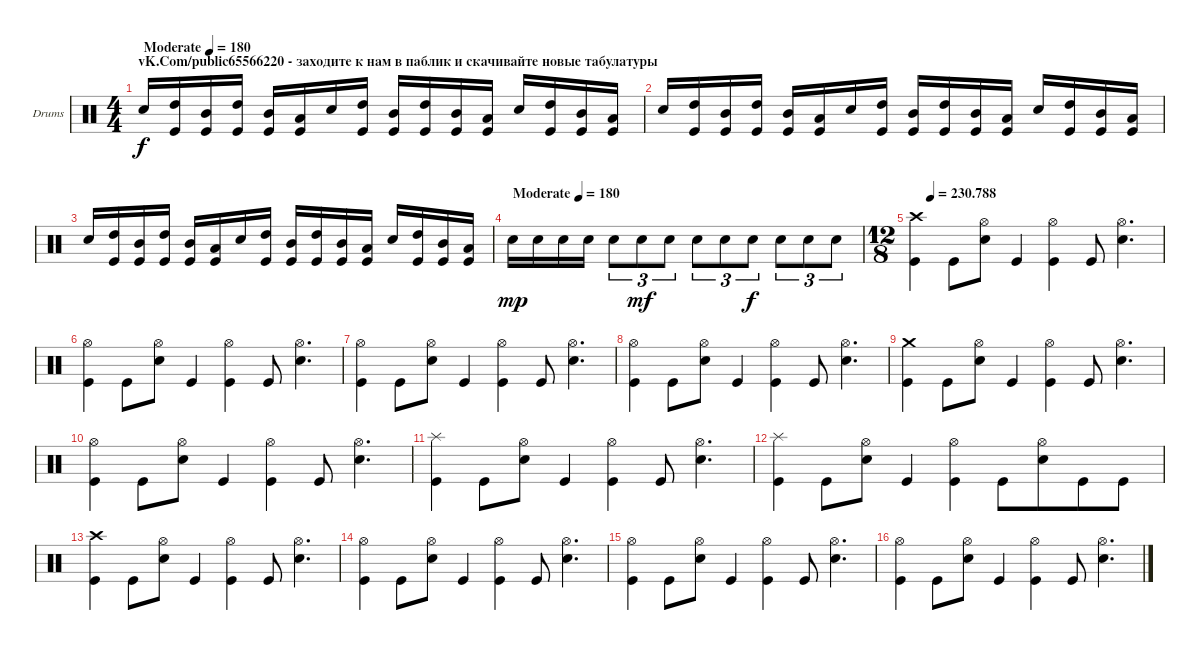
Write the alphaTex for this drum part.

\bracketExtendMode groupsimilarinstruments
\firstSystemTrackNameOrientation horizontal
\otherSystemsTrackNameOrientation horizontal
\track ("Ударные" "Drums") {instrument percussion}
\staff {score}
\articulation defaults
\ts (4 4)
\beaming (8 2 2 2 2)
\section ("" "vK.Com/public65566220 - заходите к нам в паблик и скачивайте новые табулатуры")
\tempo (180 "Moderate")
\clef neutral
\ks c "Snare (hit) 2".16{dy f}
("Kick (hit)" "High Tom (hit)").16 ("Kick (hit)" "Mid Tom (hit)").16 ("Kick (hit)" "High Tom (hit)").16 ("Mid Tom (hit)" "Kick (hit)").16 ("Low Tom (hit)" "Kick (hit)").16 "Snare (hit) 2".16 ("High Tom (hit)" "Kick (hit)").16 ("Mid Tom (hit)" "Kick (hit)").16 ("High Tom (hit)" "Kick (hit)").16 ("Mid Tom (hit)" "Kick (hit)").16 ("Low Tom (hit)" "Kick (hit)").16 "Snare (hit) 2".16 ("High Tom (hit)" "Kick (hit)").16 ("Mid Tom (hit)" "Kick (hit)").16 ("Low Tom (hit)" "Kick (hit)").16 |
"Snare (hit) 2".16 ("Kick (hit)" "High Tom (hit)").16 ("Kick (hit)" "Mid Tom (hit)").16 ("Kick (hit)" "High Tom (hit)").16 ("Mid Tom (hit)" "Kick (hit)").16 ("Low Tom (hit)" "Kick (hit)").16 "Snare (hit) 2".16 ("High Tom (hit)" "Kick (hit)").16 ("Mid Tom (hit)" "Kick (hit)").16 ("High Tom (hit)" "Kick (hit)").16 ("Mid Tom (hit)" "Kick (hit)").16 ("Low Tom (hit)" "Kick (hit)").16 "Snare (hit) 2".16 ("High Tom (hit)" "Kick (hit)").16 ("Mid Tom (hit)" "Kick (hit)").16 ("Low Tom (hit)" "Kick (hit)").16 |
"Snare (hit) 2".16 ("Kick (hit)" "High Tom (hit)").16 ("Kick (hit)" "Mid Tom (hit)").16 ("Kick (hit)" "High Tom (hit)").16 ("Mid Tom (hit)" "Kick (hit)").16 ("Low Tom (hit)" "Kick (hit)").16 "Snare (hit) 2".16 ("High Tom (hit)" "Kick (hit)").16 ("Mid Tom (hit)" "Kick (hit)").16 ("High Tom (hit)" "Kick (hit)").16 ("Mid Tom (hit)" "Kick (hit)").16 ("Low Tom (hit)" "Kick (hit)").16 "Snare (hit) 2".16 ("High Tom (hit)" "Kick (hit)").16 ("Mid Tom (hit)" "Kick (hit)").16 ("Low Tom (hit)" "Kick (hit)").16 |
\tempo (180 "Moderate")
"Snare (hit) 2".16{dy mp} "Snare (hit) 2".16 "Snare (hit) 2".16 "Snare (hit) 2".16 "Snare (hit) 2".8{tu (3 2)} "Snare (hit) 2".8{tu (3 2) dy mf} "Snare (hit) 2".8{tu (3 2)} "Snare (hit) 2".8{tu (3 2)} "Snare (hit) 2".8{tu (3 2)} "Snare (hit) 2".8{tu (3 2) dy f} "Snare (hit) 2".8{tu (3 2)} "Snare (hit) 2".8{tu (3 2)} "Snare (hit) 2".8{tu (3 2)} |
\ts (12 8)
\beaming (8 2 2 2 6)
\tempo (230.788 0.0625)
("Kick (hit)" "Crash high (hit)").4 "Kick (hit)".8 ("Snare (hit) 2" "Hi-Hat (open)").8 "Kick (hit)".4 ("Kick (hit)" "Hi-Hat (open)").4 "Kick (hit)".8 ("Snare (hit) 2" "Hi-Hat (open)").4{d} |
("Hi-Hat (open)" "Kick (hit)").4 "Kick (hit)".8 ("Hi-Hat (open)" "Snare (hit) 2").8 "Kick (hit)".4 ("Hi-Hat (open)" "Kick (hit)").4 "Kick (hit)".8 ("Hi-Hat (open)" "Snare (hit) 2").4{d} |
("Hi-Hat (open)" "Kick (hit)").4 "Kick (hit)".8 ("Hi-Hat (open)" "Snare (hit) 2").8 "Kick (hit)".4 ("Hi-Hat (open)" "Kick (hit)").4 "Kick (hit)".8 ("Hi-Hat (open)" "Snare (hit) 2").4{d} |
("Hi-Hat (open)" "Kick (hit)").4 "Kick (hit)".8 ("Hi-Hat (open)" "Snare (hit) 2").8 "Kick (hit)".4 ("Hi-Hat (open)" "Kick (hit)").4 "Kick (hit)".8 ("Hi-Hat (open)" "Snare (hit) 2").4{d} |
("Kick (hit)" "Crash medium (hit)").4 "Kick (hit)".8 ("Snare (hit) 2" "Hi-Hat (open)").8 "Kick (hit)".4 ("Kick (hit)" "Hi-Hat (open)").4 "Kick (hit)".8 ("Snare (hit) 2" "Hi-Hat (open)").4{d} |
("Hi-Hat (open)" "Kick (hit)").4 "Kick (hit)".8 ("Hi-Hat (open)" "Snare (hit) 2").8 "Kick (hit)".4 ("Hi-Hat (open)" "Kick (hit)").4 "Kick (hit)".8 ("Hi-Hat (open)" "Snare (hit) 2").4{d} |
("Splash (hit)" "Kick (hit)").4 "Kick (hit)".8 ("Hi-Hat (open)" "Snare (hit) 2").8 "Kick (hit)".4 ("Hi-Hat (open)" "Kick (hit)").4 "Kick (hit)".8 ("Hi-Hat (open)" "Snare (hit) 2").4{d} |
("Splash (hit)" "Kick (hit)").4 "Kick (hit)".8 ("Hi-Hat (open)" "Snare (hit) 2").8 "Kick (hit)".4 ("Hi-Hat (open)" "Kick (hit)").4 "Kick (hit)".8 ("Snare (hit) 2" "Hi-Hat (open)").8 "Kick (hit)".8 "Kick (hit)".8 |
("Kick (hit)" "Crash high (hit)").4 "Kick (hit)".8 ("Snare (hit) 2" "Hi-Hat (open)").8 "Kick (hit)".4 ("Kick (hit)" "Hi-Hat (open)").4 "Kick (hit)".8 ("Snare (hit) 2" "Hi-Hat (open)").4{d} |
("Hi-Hat (open)" "Kick (hit)").4 "Kick (hit)".8 ("Hi-Hat (open)" "Snare (hit) 2").8 "Kick (hit)".4 ("Hi-Hat (open)" "Kick (hit)").4 "Kick (hit)".8 ("Hi-Hat (open)" "Snare (hit) 2").4{d} |
("Hi-Hat (open)" "Kick (hit)").4 "Kick (hit)".8 ("Hi-Hat (open)" "Snare (hit) 2").8 "Kick (hit)".4 ("Hi-Hat (open)" "Kick (hit)").4 "Kick (hit)".8 ("Hi-Hat (open)" "Snare (hit) 2").4{d} |
("Hi-Hat (open)" "Kick (hit)").4 "Kick (hit)".8 ("Hi-Hat (open)" "Snare (hit) 2").8 "Kick (hit)".4 ("Hi-Hat (open)" "Kick (hit)").4 "Kick (hit)".8 ("Hi-Hat (open)" "Snare (hit) 2").4{d}
